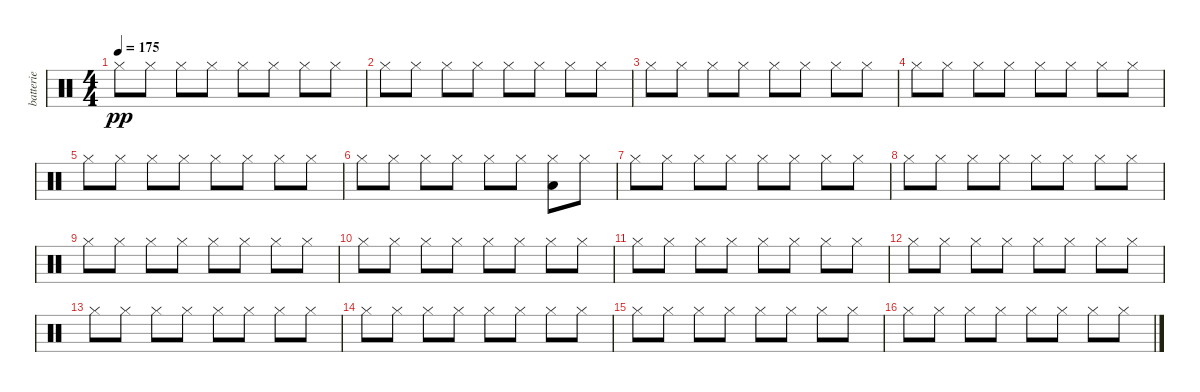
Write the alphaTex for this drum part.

\track ("batterie" "batterie") {instrument percussion}
\staff {score}
\articulation defaults
\ts (4 4)
\tempo 175
\clef neutral
\ks c "Hi-Hat (closed)".8{dy pp} "Hi-Hat (closed)".8 "Hi-Hat (closed)".8 "Hi-Hat (closed)".8 "Hi-Hat (closed)".8 "Hi-Hat (closed)".8 "Hi-Hat (closed)".8 "Hi-Hat (closed)".8
|
"Hi-Hat (closed)".8 "Hi-Hat (closed)".8 "Hi-Hat (closed)".8 "Hi-Hat (closed)".8 "Hi-Hat (closed)".8 "Hi-Hat (closed)".8 "Hi-Hat (closed)".8 "Hi-Hat (closed)".8 |
"Hi-Hat (closed)".8 "Hi-Hat (closed)".8 "Hi-Hat (closed)".8 "Hi-Hat (closed)".8 "Hi-Hat (closed)".8 "Hi-Hat (closed)".8 "Hi-Hat (closed)".8 "Hi-Hat (closed)".8 |
"Hi-Hat (closed)".8 "Hi-Hat (closed)".8 "Hi-Hat (closed)".8 "Hi-Hat (closed)".8 "Hi-Hat (closed)".8 "Hi-Hat (closed)".8 "Hi-Hat (closed)".8 "Hi-Hat (closed)".8 |
"Hi-Hat (closed)".8 "Hi-Hat (closed)".8 "Hi-Hat (closed)".8 "Hi-Hat (closed)".8 "Hi-Hat (closed)".8 "Hi-Hat (closed)".8 "Hi-Hat (closed)".8 "Hi-Hat (closed)".8 |
"Hi-Hat (closed)".8 "Hi-Hat (closed)".8 "Hi-Hat (closed)".8 "Hi-Hat (closed)".8 "Hi-Hat (closed)".8 "Hi-Hat (closed)".8 ("Low Floor Tom (hit)" "Hi-Hat (closed)").8 "Hi-Hat (closed)".8 |
"Hi-Hat (closed)".8 "Hi-Hat (closed)".8 "Hi-Hat (closed)".8 "Hi-Hat (closed)".8 "Hi-Hat (closed)".8 "Hi-Hat (closed)".8 "Hi-Hat (closed)".8 "Hi-Hat (closed)".8 |
"Hi-Hat (closed)".8 "Hi-Hat (closed)".8 "Hi-Hat (closed)".8 "Hi-Hat (closed)".8 "Hi-Hat (closed)".8 "Hi-Hat (closed)".8 "Hi-Hat (closed)".8 "Hi-Hat (closed)".8 |
"Hi-Hat (closed)".8 "Hi-Hat (closed)".8 "Hi-Hat (closed)".8 "Hi-Hat (closed)".8 "Hi-Hat (closed)".8 "Hi-Hat (closed)".8 "Hi-Hat (closed)".8 "Hi-Hat (closed)".8 |
"Hi-Hat (closed)".8 "Hi-Hat (closed)".8 "Hi-Hat (closed)".8 "Hi-Hat (closed)".8 "Hi-Hat (closed)".8 "Hi-Hat (closed)".8 "Hi-Hat (closed)".8 "Hi-Hat (closed)".8 |
"Hi-Hat (closed)".8 "Hi-Hat (closed)".8 "Hi-Hat (closed)".8 "Hi-Hat (closed)".8 "Hi-Hat (closed)".8 "Hi-Hat (closed)".8 "Hi-Hat (closed)".8 "Hi-Hat (closed)".8 |
"Hi-Hat (closed)".8 "Hi-Hat (closed)".8 "Hi-Hat (closed)".8 "Hi-Hat (closed)".8 "Hi-Hat (closed)".8 "Hi-Hat (closed)".8 "Hi-Hat (closed)".8 "Hi-Hat (closed)".8 |
"Hi-Hat (closed)".8 "Hi-Hat (closed)".8 "Hi-Hat (closed)".8 "Hi-Hat (closed)".8 "Hi-Hat (closed)".8 "Hi-Hat (closed)".8 "Hi-Hat (closed)".8 "Hi-Hat (closed)".8 |
"Hi-Hat (closed)".8 "Hi-Hat (closed)".8 "Hi-Hat (closed)".8 "Hi-Hat (closed)".8 "Hi-Hat (closed)".8 "Hi-Hat (closed)".8 "Hi-Hat (closed)".8 "Hi-Hat (closed)".8 |
"Hi-Hat (closed)".8 "Hi-Hat (closed)".8 "Hi-Hat (closed)".8 "Hi-Hat (closed)".8 "Hi-Hat (closed)".8 "Hi-Hat (closed)".8 "Hi-Hat (closed)".8 "Hi-Hat (closed)".8 |
"Hi-Hat (closed)".8 "Hi-Hat (closed)".8 "Hi-Hat (closed)".8 "Hi-Hat (closed)".8 "Hi-Hat (closed)".8 "Hi-Hat (closed)".8 "Hi-Hat (closed)".8 "Hi-Hat (closed)".8
